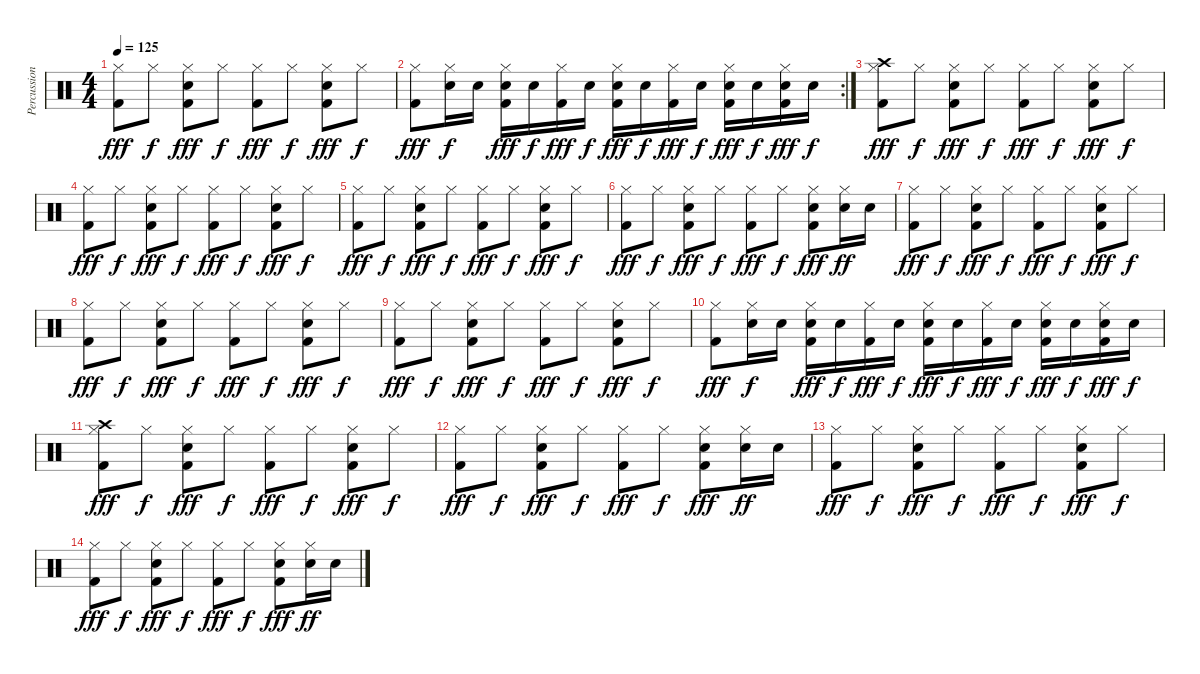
\track ("Percussion" "Percussion") {instrument percussion}
\staff {score}
\articulation defaults
\ts (4 4)
\tempo 125
\clef neutral
\ks c
("Hi-Hat (closed)" "Kick (hit) 2").8{dy fff} "Hi-Hat (closed)".8{dy f} ("Hi-Hat (closed)" "Kick (hit) 2" "Snare (hit) 2").8{dy fff} "Hi-Hat (closed)".8{dy f} ("Hi-Hat (closed)" "Kick (hit) 2").8{dy fff} "Hi-Hat (closed)".8{dy f} ("Hi-Hat (closed)" "Kick (hit) 2" "Snare (hit) 2").8{dy fff} "Hi-Hat (closed)".8{dy f} |
\rc 2
("Hi-Hat (closed)" "Kick (hit) 2").8{dy fff} ("Hi-Hat (closed)" "Snare (hit) 2").16{dy f} "Snare (hit) 2".16 ("Hi-Hat (closed)" "Kick (hit) 2" "Snare (hit) 2").16{dy fff} "Snare (hit) 2".16{dy f} ("Hi-Hat (closed)" "Kick (hit) 2").16{dy fff} "Snare (hit) 2".16{dy f} ("Hi-Hat (closed)" "Kick (hit) 2" "Snare (hit) 2").16{dy fff} "Snare (hit) 2".16{dy f} ("Hi-Hat (closed)" "Kick (hit) 2").16{dy fff} "Snare (hit) 2".16{dy f} ("Hi-Hat (closed)" "Kick (hit) 2" "Snare (hit) 2").16{dy fff} "Snare (hit) 2".16{dy f} ("Hi-Hat (closed)" "Kick (hit) 2" "Snare (hit) 2").16{dy fff} "Snare (hit) 2".16{dy f} |
("Hi-Hat (closed)" "Kick (hit) 2" "Crash high (hit)").8{dy fff} "Hi-Hat (closed)".8{dy f} ("Hi-Hat (closed)" "Kick (hit) 2" "Snare (hit) 2").8{dy fff} "Hi-Hat (closed)".8{dy f} ("Hi-Hat (closed)" "Kick (hit) 2").8{dy fff} "Hi-Hat (closed)".8{dy f} ("Hi-Hat (closed)" "Kick (hit) 2" "Snare (hit) 2").8{dy fff} "Hi-Hat (closed)".8{dy f} |
("Hi-Hat (closed)" "Kick (hit) 2").8{dy fff} "Hi-Hat (closed)".8{dy f} ("Hi-Hat (closed)" "Kick (hit) 2" "Snare (hit) 2").8{dy fff} "Hi-Hat (closed)".8{dy f} ("Hi-Hat (closed)" "Kick (hit) 2").8{dy fff} "Hi-Hat (closed)".8{dy f} ("Hi-Hat (closed)" "Kick (hit) 2" "Snare (hit) 2").8{dy fff} "Hi-Hat (closed)".8{dy f} |
("Hi-Hat (closed)" "Kick (hit) 2").8{dy fff} "Hi-Hat (closed)".8{dy f} ("Hi-Hat (closed)" "Kick (hit) 2" "Snare (hit) 2").8{dy fff} "Hi-Hat (closed)".8{dy f} ("Hi-Hat (closed)" "Kick (hit) 2").8{dy fff} "Hi-Hat (closed)".8{dy f} ("Hi-Hat (closed)" "Kick (hit) 2" "Snare (hit) 2").8{dy fff} "Hi-Hat (closed)".8{dy f} |
("Hi-Hat (closed)" "Kick (hit) 2").8{dy fff} "Hi-Hat (closed)".8{dy f} ("Hi-Hat (closed)" "Kick (hit) 2" "Snare (hit) 2").8{dy fff} "Hi-Hat (closed)".8{dy f} ("Hi-Hat (closed)" "Kick (hit) 2").8{dy fff} "Hi-Hat (closed)".8{dy f} ("Hi-Hat (closed)" "Kick (hit) 2" "Snare (hit) 2").8{dy fff} ("Hi-Hat (closed)" "Snare (hit) 2").16{dy ff} "Snare (hit) 2".16 |
("Hi-Hat (closed)" "Kick (hit) 2").8{dy fff} "Hi-Hat (closed)".8{dy f} ("Hi-Hat (closed)" "Kick (hit) 2" "Snare (hit) 2").8{dy fff} "Hi-Hat (closed)".8{dy f} ("Hi-Hat (closed)" "Kick (hit) 2").8{dy fff} "Hi-Hat (closed)".8{dy f} ("Hi-Hat (closed)" "Kick (hit) 2" "Snare (hit) 2").8{dy fff} "Hi-Hat (closed)".8{dy f} |
("Hi-Hat (closed)" "Kick (hit) 2").8{dy fff} "Hi-Hat (closed)".8{dy f} ("Hi-Hat (closed)" "Kick (hit) 2" "Snare (hit) 2").8{dy fff} "Hi-Hat (closed)".8{dy f} ("Hi-Hat (closed)" "Kick (hit) 2").8{dy fff} "Hi-Hat (closed)".8{dy f} ("Hi-Hat (closed)" "Kick (hit) 2" "Snare (hit) 2").8{dy fff} "Hi-Hat (closed)".8{dy f} |
("Hi-Hat (closed)" "Kick (hit) 2").8{dy fff} "Hi-Hat (closed)".8{dy f} ("Hi-Hat (closed)" "Kick (hit) 2" "Snare (hit) 2").8{dy fff} "Hi-Hat (closed)".8{dy f} ("Hi-Hat (closed)" "Kick (hit) 2").8{dy fff} "Hi-Hat (closed)".8{dy f} ("Hi-Hat (closed)" "Kick (hit) 2" "Snare (hit) 2").8{dy fff} "Hi-Hat (closed)".8{dy f} |
("Hi-Hat (closed)" "Kick (hit) 2").8{dy fff} ("Hi-Hat (closed)" "Snare (hit) 2").16{dy f} "Snare (hit) 2".16 ("Hi-Hat (closed)" "Kick (hit) 2" "Snare (hit) 2").16{dy fff} "Snare (hit) 2".16{dy f} ("Hi-Hat (closed)" "Kick (hit) 2").16{dy fff} "Snare (hit) 2".16{dy f} ("Hi-Hat (closed)" "Kick (hit) 2" "Snare (hit) 2").16{dy fff} "Snare (hit) 2".16{dy f} ("Hi-Hat (closed)" "Kick (hit) 2").16{dy fff} "Snare (hit) 2".16{dy f} ("Hi-Hat (closed)" "Kick (hit) 2" "Snare (hit) 2").16{dy fff} "Snare (hit) 2".16{dy f} ("Hi-Hat (closed)" "Kick (hit) 2" "Snare (hit) 2").16{dy fff} "Snare (hit) 2".16{dy f} |
("Hi-Hat (closed)" "Kick (hit) 2" "Crash high (hit)").8{dy fff} "Hi-Hat (closed)".8{dy f} ("Hi-Hat (closed)" "Kick (hit) 2" "Snare (hit) 2").8{dy fff} "Hi-Hat (closed)".8{dy f} ("Hi-Hat (closed)" "Kick (hit) 2").8{dy fff} "Hi-Hat (closed)".8{dy f} ("Hi-Hat (closed)" "Kick (hit) 2" "Snare (hit) 2").8{dy fff} "Hi-Hat (closed)".8{dy f} |
("Hi-Hat (closed)" "Kick (hit) 2").8{dy fff} "Hi-Hat (closed)".8{dy f} ("Hi-Hat (closed)" "Kick (hit) 2" "Snare (hit) 2").8{dy fff} "Hi-Hat (closed)".8{dy f} ("Hi-Hat (closed)" "Kick (hit) 2").8{dy fff} "Hi-Hat (closed)".8{dy f} ("Hi-Hat (closed)" "Kick (hit) 2" "Snare (hit) 2").8{dy fff} ("Hi-Hat (closed)" "Snare (hit) 2").16{dy ff} "Snare (hit) 2".16 |
("Hi-Hat (closed)" "Kick (hit) 2").8{dy fff} "Hi-Hat (closed)".8{dy f} ("Hi-Hat (closed)" "Kick (hit) 2" "Snare (hit) 2").8{dy fff} "Hi-Hat (closed)".8{dy f} ("Hi-Hat (closed)" "Kick (hit) 2").8{dy fff} "Hi-Hat (closed)".8{dy f} ("Hi-Hat (closed)" "Kick (hit) 2" "Snare (hit) 2").8{dy fff} "Hi-Hat (closed)".8{dy f} |
("Hi-Hat (closed)" "Kick (hit) 2").8{dy fff} "Hi-Hat (closed)".8{dy f} ("Hi-Hat (closed)" "Kick (hit) 2" "Snare (hit) 2").8{dy fff} "Hi-Hat (closed)".8{dy f} ("Hi-Hat (closed)" "Kick (hit) 2").8{dy fff} "Hi-Hat (closed)".8{dy f} ("Hi-Hat (closed)" "Kick (hit) 2" "Snare (hit) 2").8{dy fff} ("Hi-Hat (closed)" "Snare (hit) 2").16{dy ff} "Snare (hit) 2".16
